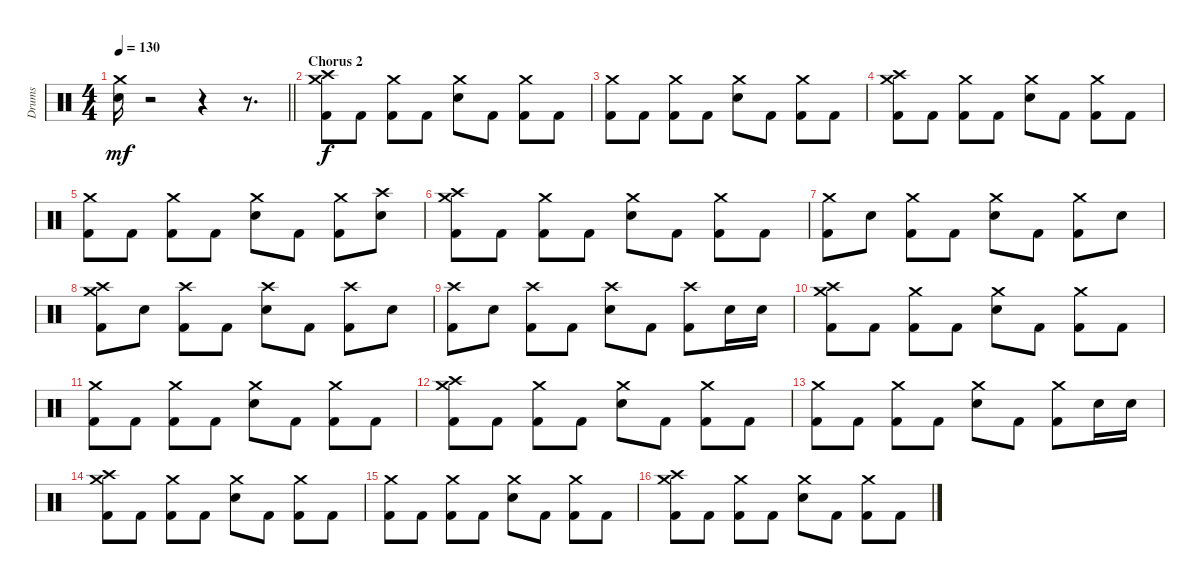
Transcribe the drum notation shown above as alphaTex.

\track ("Drums" "Drums") {instrument percussion}
\staff {score}
\articulation defaults
\ts (4 4)
\tempo 130
\clef neutral
\barLineRight lightlight
\ks c
("Crash medium (hit)" "Snare (hit) 2").16{dy mf volume 16} r.2 r.4 r.8{d} |
\section ("" "Chorus 2")
("Crash high (hit)" "Crash medium (hit)" "Kick (hit) 2").8{dy f} "Kick (hit) 2".8 ("Crash medium (hit)" "Kick (hit) 2").8 "Kick (hit) 2".8 ("Crash medium (hit)" "Snare (hit) 2").8 "Kick (hit) 2".8 ("Crash medium (hit)" "Kick (hit) 2").8 "Kick (hit) 2".8 |
("Crash medium (hit)" "Kick (hit) 2").8 "Kick (hit) 2".8 ("Crash medium (hit)" "Kick (hit) 2").8 "Kick (hit) 2".8 ("Crash medium (hit)" "Snare (hit) 2").8 "Kick (hit) 2".8 ("Crash medium (hit)" "Kick (hit) 2").8 "Kick (hit) 2".8 |
("Crash high (hit)" "Crash medium (hit)" "Kick (hit) 2").8 "Kick (hit) 2".8 ("Crash medium (hit)" "Kick (hit) 2").8 "Kick (hit) 2".8 ("Crash medium (hit)" "Snare (hit) 2").8 "Kick (hit) 2".8 ("Crash medium (hit)" "Kick (hit) 2").8 "Kick (hit) 2".8 |
("Crash medium (hit)" "Kick (hit) 2").8 "Kick (hit) 2".8 ("Crash medium (hit)" "Kick (hit) 2").8 "Kick (hit) 2".8 ("Crash medium (hit)" "Snare (hit) 2").8 "Kick (hit) 2".8 ("Crash medium (hit)" "Kick (hit) 2").8 ("Crash high (hit)" "Snare (hit) 2").8 |
("Crash high (hit)" "Crash medium (hit)" "Kick (hit) 2").8 "Kick (hit) 2".8 ("Crash medium (hit)" "Kick (hit) 2").8 "Kick (hit) 2".8 ("Crash medium (hit)" "Snare (hit) 2").8 "Kick (hit) 2".8 ("Crash medium (hit)" "Kick (hit) 2").8 "Kick (hit) 2".8 |
("Crash medium (hit)" "Kick (hit) 2").8 "Snare (hit) 2".8 ("Crash medium (hit)" "Kick (hit) 2").8 "Kick (hit) 2".8 ("Crash medium (hit)" "Snare (hit) 2").8 "Kick (hit) 2".8 ("Crash medium (hit)" "Kick (hit) 2").8 "Snare (hit) 2".8 |
("Crash medium (hit)" "Crash high (hit)" "Kick (hit) 2").8 "Snare (hit) 2".8 ("Crash high (hit)" "Kick (hit) 2").8 "Kick (hit) 2".8 ("Crash high (hit)" "Snare (hit) 2").8 "Kick (hit) 2".8 ("Crash high (hit)" "Kick (hit) 2").8 "Snare (hit) 2".8 |
("Crash high (hit)" "Kick (hit) 2").8 "Snare (hit) 2".8 ("Crash high (hit)" "Kick (hit) 2").8 "Kick (hit) 2".8 ("Crash high (hit)" "Snare (hit) 2").8 "Kick (hit) 2".8 ("Crash high (hit)" "Kick (hit) 2").8 "Snare (hit) 2".16 "Snare (hit) 2".16 |
("Crash high (hit)" "Crash medium (hit)" "Kick (hit) 2").8 "Kick (hit) 2".8 ("Crash medium (hit)" "Kick (hit) 2").8 "Kick (hit) 2".8 ("Crash medium (hit)" "Snare (hit) 2").8 "Kick (hit) 2".8 ("Crash medium (hit)" "Kick (hit) 2").8 "Kick (hit) 2".8 |
("Crash medium (hit)" "Kick (hit) 2").8 "Kick (hit) 2".8 ("Crash medium (hit)" "Kick (hit) 2").8 "Kick (hit) 2".8 ("Crash medium (hit)" "Snare (hit) 2").8 "Kick (hit) 2".8 ("Crash medium (hit)" "Kick (hit) 2").8 "Kick (hit) 2".8 |
("Crash high (hit)" "Crash medium (hit)" "Kick (hit) 2").8 "Kick (hit) 2".8 ("Crash medium (hit)" "Kick (hit) 2").8 "Kick (hit) 2".8 ("Crash medium (hit)" "Snare (hit) 2").8 "Kick (hit) 2".8 ("Crash medium (hit)" "Kick (hit) 2").8 "Kick (hit) 2".8 |
("Crash medium (hit)" "Kick (hit) 2").8 "Kick (hit) 2".8 ("Crash medium (hit)" "Kick (hit) 2").8 "Kick (hit) 2".8 ("Crash medium (hit)" "Snare (hit) 2").8 "Kick (hit) 2".8 ("Crash medium (hit)" "Kick (hit) 2").8 "Snare (hit) 2".16 "Snare (hit) 2".16 |
("Crash high (hit)" "Crash medium (hit)" "Kick (hit) 2").8 "Kick (hit) 2".8 ("Crash medium (hit)" "Kick (hit) 2").8 "Kick (hit) 2".8 ("Crash medium (hit)" "Snare (hit) 2").8 "Kick (hit) 2".8 ("Crash medium (hit)" "Kick (hit) 2").8 "Kick (hit) 2".8 |
("Crash medium (hit)" "Kick (hit) 2").8 "Kick (hit) 2".8 ("Crash medium (hit)" "Kick (hit) 2").8 "Kick (hit) 2".8 ("Crash medium (hit)" "Snare (hit) 2").8 "Kick (hit) 2".8 ("Crash medium (hit)" "Kick (hit) 2").8 "Kick (hit) 2".8 |
("Crash high (hit)" "Crash medium (hit)" "Kick (hit) 2").8 "Kick (hit) 2".8 ("Crash medium (hit)" "Kick (hit) 2").8 "Kick (hit) 2".8 ("Crash medium (hit)" "Snare (hit) 2").8 "Kick (hit) 2".8 ("Crash medium (hit)" "Kick (hit) 2").8 "Kick (hit) 2".8
